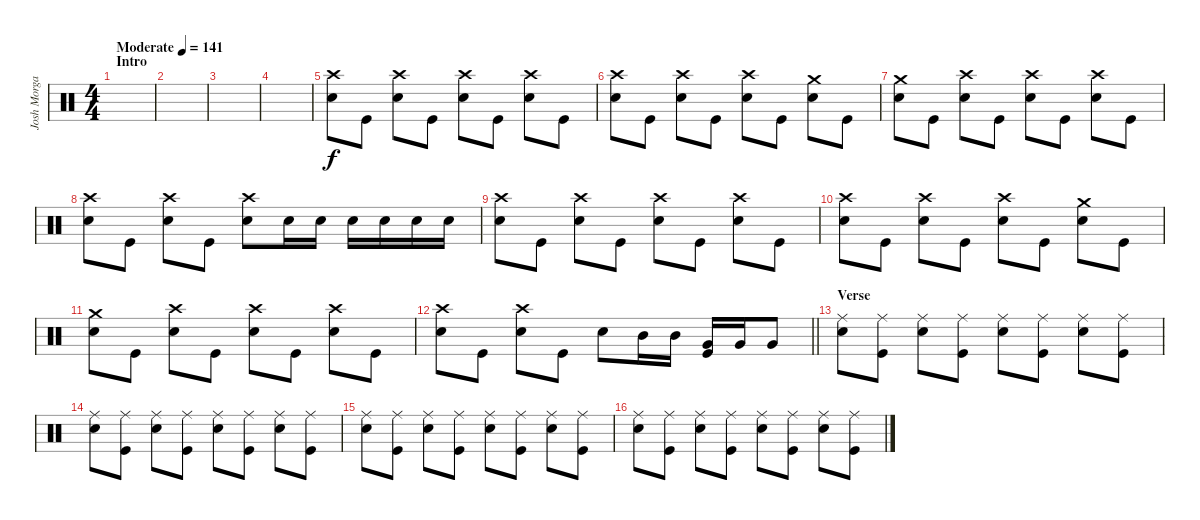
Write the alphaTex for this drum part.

\track ("Josh Morgan" "Josh Morga") {instrument percussion}
\staff {score}
\articulation defaults
\ts (4 4)
\section ("" "Intro")
\tempo (141 "Moderate")
\clef neutral
\ks c
|
|
|
|
("Crash high (hit)" "Electric Snare (hit)").8 "Kick (hit)".8 ("Crash high (hit)" "Electric Snare (hit)").8 "Kick (hit)".8 ("Crash high (hit)" "Electric Snare (hit)").8 "Kick (hit)".8 ("Crash high (hit)" "Electric Snare (hit)").8 "Kick (hit)".8 |
("Crash high (hit)" "Electric Snare (hit)").8 "Kick (hit)".8 ("Crash high (hit)" "Electric Snare (hit)").8 "Kick (hit)".8 ("Crash high (hit)" "Electric Snare (hit)").8 "Kick (hit)".8 ("Crash medium (hit)" "Electric Snare (hit)").8 "Kick (hit)".8 |
("Crash medium (hit)" "Electric Snare (hit)").8 "Kick (hit)".8 ("Crash high (hit)" "Electric Snare (hit)").8 "Kick (hit)".8 ("Crash high (hit)" "Electric Snare (hit)").8 "Kick (hit)".8 ("Crash high (hit)" "Electric Snare (hit)").8 "Kick (hit)".8 |
("Crash high (hit)" "Electric Snare (hit)").8 "Kick (hit)".8 ("Crash high (hit)" "Electric Snare (hit)").8 "Kick (hit)".8 ("Crash high (hit)" "Electric Snare (hit)").8 "Electric Snare (hit)".16 "Electric Snare (hit)".16 "Electric Snare (hit)".16 "Electric Snare (hit)".16 "Electric Snare (hit)".16 "Electric Snare (hit)".16 |
("Crash high (hit)" "Electric Snare (hit)").8 "Kick (hit)".8 ("Crash high (hit)" "Electric Snare (hit)").8 "Kick (hit)".8 ("Crash high (hit)" "Electric Snare (hit)").8 "Kick (hit)".8 ("Crash high (hit)" "Electric Snare (hit)").8 "Kick (hit)".8 |
("Crash high (hit)" "Electric Snare (hit)").8 "Kick (hit)".8 ("Crash high (hit)" "Electric Snare (hit)").8 "Kick (hit)".8 ("Crash high (hit)" "Electric Snare (hit)").8 "Kick (hit)".8 ("Crash medium (hit)" "Electric Snare (hit)").8 "Kick (hit)".8 |
("Crash medium (hit)" "Electric Snare (hit)").8 "Kick (hit)".8 ("Crash high (hit)" "Electric Snare (hit)").8 "Kick (hit)".8 ("Crash high (hit)" "Electric Snare (hit)").8 "Kick (hit)".8 ("Crash high (hit)" "Electric Snare (hit)").8 "Kick (hit)".8 |
\barLineRight lightlight
("Crash high (hit)" "Electric Snare (hit)").8 "Kick (hit)".8 ("Crash high (hit)" "Electric Snare (hit)").8 "Kick (hit)".8 "Electric Snare (hit)".8 "Mid Tom (hit)".16 "Mid Tom (hit)".16 ("Very Low Tom (hit)" "Kick (hit)").16 "Very Low Tom (hit)".16 "Very Low Tom (hit)".8 |
\section ("" "Verse")
("Ride (middle)" "Electric Snare (hit)").8 ("Ride (middle)" "Kick (hit)").8 ("Ride (middle)" "Electric Snare (hit)").8 ("Ride (middle)" "Kick (hit)").8 ("Ride (middle)" "Electric Snare (hit)").8 ("Ride (middle)" "Kick (hit)").8 ("Ride (middle)" "Electric Snare (hit)").8 ("Ride (middle)" "Kick (hit)").8 |
("Ride (middle)" "Electric Snare (hit)").8 ("Ride (middle)" "Kick (hit)").8 ("Ride (middle)" "Electric Snare (hit)").8 ("Ride (middle)" "Kick (hit)").8 ("Ride (middle)" "Electric Snare (hit)").8 ("Ride (middle)" "Kick (hit)").8 ("Ride (middle)" "Electric Snare (hit)").8 ("Ride (middle)" "Kick (hit)").8 |
("Ride (middle)" "Electric Snare (hit)").8 ("Ride (middle)" "Kick (hit)").8 ("Ride (middle)" "Electric Snare (hit)").8 ("Ride (middle)" "Kick (hit)").8 ("Ride (middle)" "Electric Snare (hit)").8 ("Ride (middle)" "Kick (hit)").8 ("Ride (middle)" "Electric Snare (hit)").8 ("Ride (middle)" "Kick (hit)").8 |
("Ride (middle)" "Electric Snare (hit)").8 ("Ride (middle)" "Kick (hit)").8 ("Ride (middle)" "Electric Snare (hit)").8 ("Ride (middle)" "Kick (hit)").8 ("Ride (middle)" "Electric Snare (hit)").8 ("Ride (middle)" "Kick (hit)").8 ("Ride (middle)" "Electric Snare (hit)").8 ("Ride (middle)" "Kick (hit)").8
